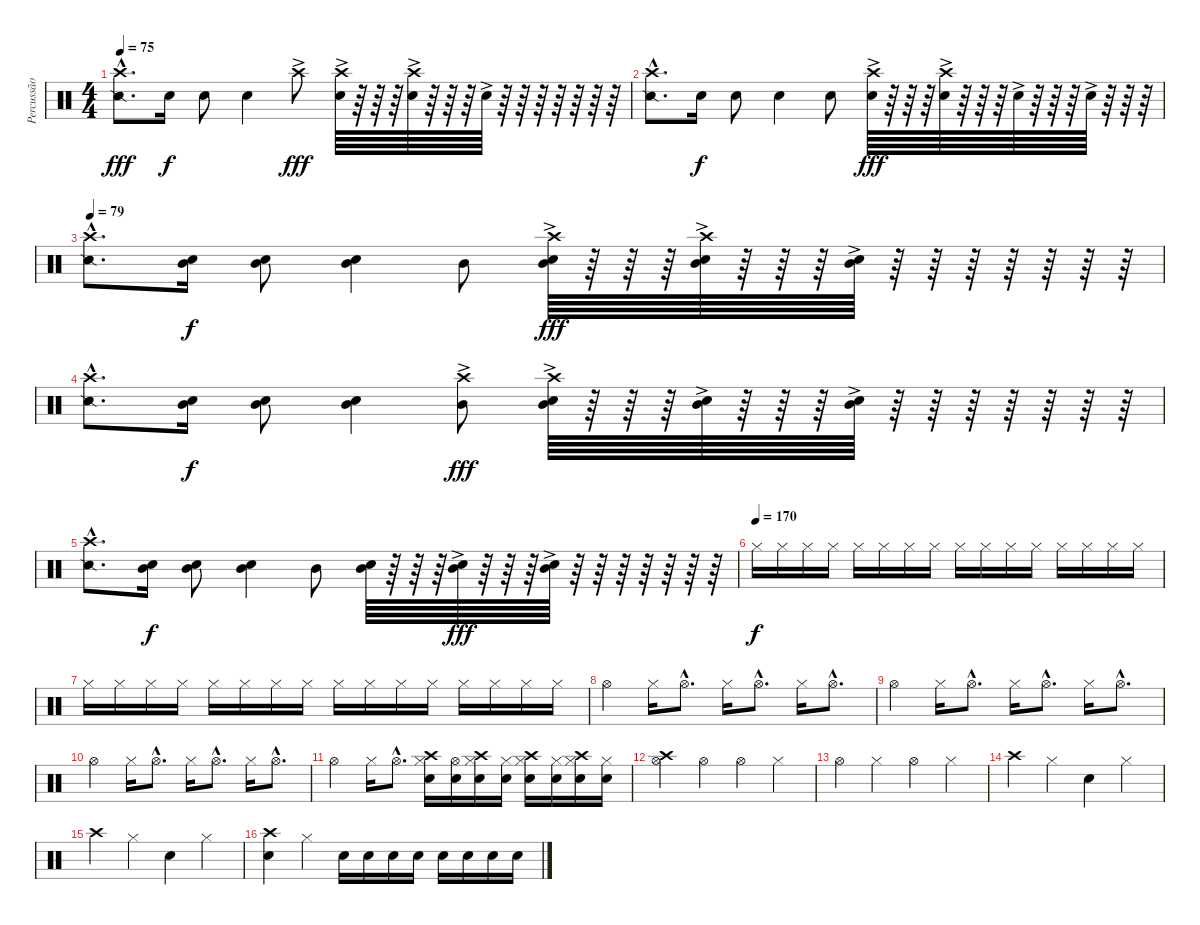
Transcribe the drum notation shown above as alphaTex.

\track ("Percussão" "Percussão") {instrument percussion}
\staff {score}
\articulation defaults
\ts (4 4)
\tempo 75
\clef neutral
\ks c
("Crash high (hit)"{hac} "Snare (side stick) 2"{hac}).8{d dy fff volume 10} "Snare (hit) 2".16{dy f} "Snare (hit) 2".8 "Snare (hit) 2".4 "Crash high (hit)"{ac}.8{dy fff volume 9} ("Crash high (hit)"{ac} "Snare (hit) 2").64 r.64 r.64 r.64 ("Crash high (hit)" "Snare (hit) 2"{ac}).64 r.64 r.64 r.64 "Snare (hit) 2"{ac}.64 r.64 r.64 r.64 r.64 r.64 r.64 r.64 |
("Crash high (hit)"{hac} "Snare (side stick) 2"{hac}).8{d volume 10} "Snare (hit) 2".16{dy f} "Snare (hit) 2".8 "Snare (hit) 2".4 "Snare (hit) 2".8{volume 9} ("Crash high (hit)"{ac} "Snare (hit) 2").64{dy fff} r.64 r.64 r.64 ("Crash high (hit)" "Snare (hit) 2"{ac}).64 r.64 r.64 r.64 "Snare (hit) 2"{ac}.64 r.64 r.64 r.64 "Snare (hit) 2"{ac}.64 r.64 r.64 r.64 |
\tempo 79
("Crash high (hit)"{hac} "Snare (side stick) 2"{hac}).8{d volume 10} ("Snare (hit) 2" "Mid Tom (hit)").16{dy f} ("Snare (hit) 2" "Mid Tom (hit)").8 ("Snare (hit) 2" "Mid Tom (hit)").4 "Mid Tom (hit)".8{volume 9} ("Crash high (hit)"{ac} "Snare (hit) 2" "Mid Tom (hit)").64{dy fff} r.64 r.64 r.64 ("Crash high (hit)" "Snare (hit) 2"{ac} "Mid Tom (hit)").64 r.64 r.64 r.64 ("Snare (hit) 2"{ac} "Mid Tom (hit)").64 r.64 r.64 r.64 r.64 r.64 r.64 r.64 |
("Crash high (hit)"{hac} "Snare (side stick) 2"{hac}).8{d volume 10} ("Snare (hit) 2" "Mid Tom (hit)").16{dy f} ("Snare (hit) 2" "Mid Tom (hit)").8 ("Snare (hit) 2" "Mid Tom (hit)").4 ("Crash high (hit)"{ac} "Mid Tom (hit)").8{dy fff volume 9} ("Crash high (hit)"{ac} "Snare (hit) 2" "Mid Tom (hit)").64 r.64 r.64 r.64 ("Snare (hit) 2"{ac} "Mid Tom (hit)").64 r.64 r.64 r.64 ("Snare (hit) 2"{ac} "Mid Tom (hit)").64 r.64 r.64 r.64 r.64 r.64 r.64 r.64 |
("Crash high (hit)"{hac} "Snare (side stick) 2"{hac}).8{d volume 10} ("Snare (hit) 2" "Mid Tom (hit)").16{dy f} ("Snare (hit) 2" "Mid Tom (hit)").8 ("Snare (hit) 2" "Mid Tom (hit)").4 "Mid Tom (hit)".8{volume 9} ("Snare (hit) 2" "Mid Tom (hit)").64 r.64 r.64 r.64 ("Snare (hit) 2"{ac} "Mid Tom (hit)").64{dy fff} r.64 r.64 r.64 ("Snare (hit) 2"{ac} "Mid Tom (hit)").64 r.64 r.64 r.64 r.64 r.64 r.64 r.64 |
\tempo (170)
"Hi-Hat (closed)".16{dy f} "Hi-Hat (closed)".16 "Hi-Hat (closed)".16 "Hi-Hat (closed)".16 "Hi-Hat (closed)".16 "Hi-Hat (closed)".16 "Hi-Hat (closed)".16 "Hi-Hat (closed)".16 "Hi-Hat (closed)".16 "Hi-Hat (closed)".16 "Hi-Hat (closed)".16 "Hi-Hat (closed)".16 "Hi-Hat (closed)".16 "Hi-Hat (closed)".16 "Hi-Hat (closed)".16 "Hi-Hat (closed)".16 |
"Hi-Hat (closed)".16 "Hi-Hat (closed)".16 "Hi-Hat (closed)".16 "Hi-Hat (closed)".16 "Hi-Hat (closed)".16 "Hi-Hat (closed)".16 "Hi-Hat (closed)".16 "Hi-Hat (closed)".16 "Hi-Hat (closed)".16 "Hi-Hat (closed)".16 "Hi-Hat (closed)".16 "Hi-Hat (closed)".16 "Hi-Hat (closed)".16 "Hi-Hat (closed)".16 "Hi-Hat (closed)".16 "Hi-Hat (closed)".16 |
"Hi-Hat (open)".4 "Hi-Hat (closed)".16 "Hi-Hat (open)"{hac}.8{d} "Hi-Hat (closed)".16 "Hi-Hat (open)"{hac}.8{d} "Hi-Hat (closed)".16 "Hi-Hat (open)"{hac}.8{d} |
"Hi-Hat (open)".4 "Hi-Hat (closed)".16 "Hi-Hat (open)"{hac}.8{d} "Hi-Hat (closed)".16 "Hi-Hat (open)"{hac}.8{d} "Hi-Hat (closed)".16 "Hi-Hat (open)"{hac}.8{d} |
"Hi-Hat (open)".4 "Hi-Hat (closed)".16 "Hi-Hat (open)"{hac}.8{d} "Hi-Hat (closed)".16 "Hi-Hat (open)"{hac}.8{d} "Hi-Hat (closed)".16 "Hi-Hat (open)"{hac}.8{d} |
"Hi-Hat (open)".4 "Hi-Hat (closed)".16 "Hi-Hat (open)"{hac}.8{d} ("Crash high (hit)" "Hi-Hat (closed)" "Snare (hit) 2").16 ("Hi-Hat (open)" "Snare (hit) 2").16 ("Crash high (hit)" "Hi-Hat (closed)" "Snare (hit) 2").16 ("Hi-Hat (closed)" "Snare (hit) 2").16 ("Crash high (hit)" "Hi-Hat (closed)" "Snare (hit) 2").16 ("Hi-Hat (closed)" "Snare (hit) 2").16 ("Crash high (hit)" "Hi-Hat (closed)" "Snare (hit) 2").16 ("Hi-Hat (closed)" "Snare (hit) 2").16 |
("Crash high (hit)" "Hi-Hat (open)").4 "Hi-Hat (open)".4 "Hi-Hat (open)".4 "Hi-Hat (closed)".4 |
"Hi-Hat (open)".4 "Hi-Hat (closed)".4 "Hi-Hat (open)".4 "Hi-Hat (closed)".4 |
"Crash high (hit)".4 "Hi-Hat (closed)".4 "Snare (hit) 2".4 "Hi-Hat (closed)".4 |
"Crash high (hit)".4 "Hi-Hat (closed)".4 "Snare (hit) 2".4 "Hi-Hat (closed)".4 |
("Crash high (hit)" "Snare (hit) 2").4 "Hi-Hat (closed)".4 "Snare (hit) 2".16{volume 7} "Snare (hit) 2".16 "Snare (hit) 2".16 "Snare (hit) 2".16 "Snare (hit) 2".16 "Snare (hit) 2".16 "Snare (hit) 2".16 "Snare (hit) 2".16
